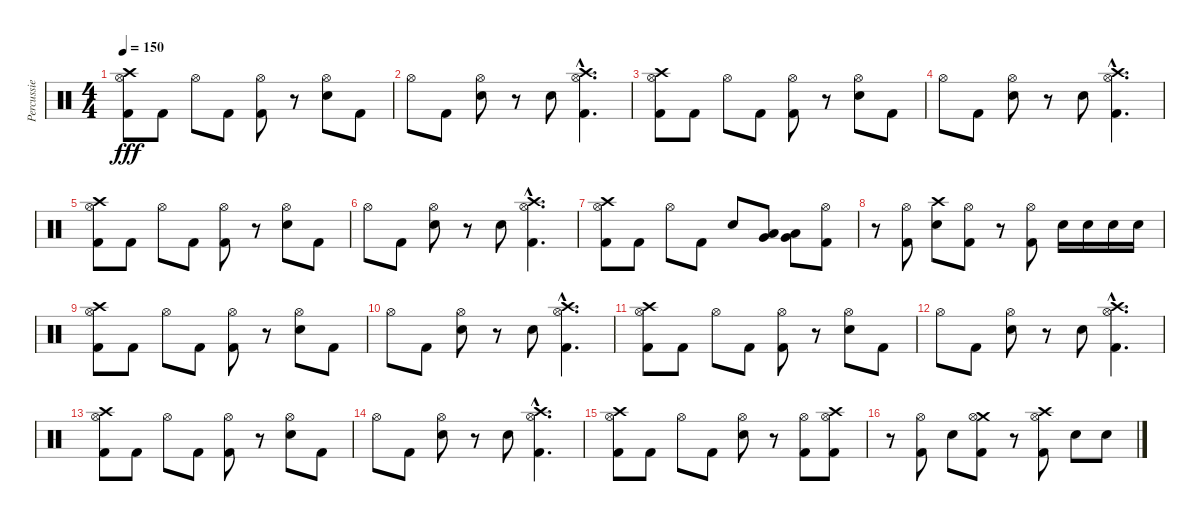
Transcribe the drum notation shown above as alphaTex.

\track ("Percussie" "Percussie") {instrument percussion}
\staff {score}
\articulation defaults
\ts (4 4)
\tempo 150
\clef neutral
\ks c
("Kick (hit) 2" "Crash high (hit)" "Hi-Hat (open)").8{dy fff} "Kick (hit) 2".8 "Hi-Hat (open)".8 "Kick (hit) 2".8 ("Kick (hit) 2" "Hi-Hat (open)").8 r.8 ("Electric Snare (hit)" "Hi-Hat (open)").8 "Kick (hit) 2".8 |
"Hi-Hat (open)".8 "Kick (hit) 2".8 ("Electric Snare (hit)" "Hi-Hat (open)").8 r.8 "Electric Snare (hit)".8 ("Kick (hit) 2"{hac} "Crash high (hit)"{hac} "Hi-Hat (open)"{hac}).4{d} |
("Kick (hit) 2" "Crash high (hit)" "Hi-Hat (open)").8 "Kick (hit) 2".8 "Hi-Hat (open)".8 "Kick (hit) 2".8 ("Kick (hit) 2" "Hi-Hat (open)").8 r.8 ("Electric Snare (hit)" "Hi-Hat (open)").8 "Kick (hit) 2".8 |
"Hi-Hat (open)".8 "Kick (hit) 2".8 ("Electric Snare (hit)" "Hi-Hat (open)").8 r.8 "Electric Snare (hit)".8 ("Kick (hit) 2"{hac} "Crash high (hit)"{hac} "Hi-Hat (open)"{hac}).4{d} |
("Kick (hit) 2" "Crash high (hit)" "Hi-Hat (open)").8 "Kick (hit) 2".8 "Hi-Hat (open)".8 "Kick (hit) 2".8 ("Kick (hit) 2" "Hi-Hat (open)").8 r.8 ("Electric Snare (hit)" "Hi-Hat (open)").8 "Kick (hit) 2".8 |
"Hi-Hat (open)".8 "Kick (hit) 2".8 ("Electric Snare (hit)" "Hi-Hat (open)").8 r.8 "Electric Snare (hit)".8 ("Kick (hit) 2"{hac} "Crash high (hit)"{hac} "Hi-Hat (open)"{hac}).4{d} |
("Kick (hit) 2" "Crash high (hit)" "Hi-Hat (open)").8 "Kick (hit) 2".8 "Hi-Hat (open)".8 "Kick (hit) 2".8 "Electric Snare (hit)".8 ("Low Tom (hit)" "Very Low Tom (hit)").8 ("Low Tom (hit)" "Very Low Tom (hit)").8 ("Kick (hit) 2" "Hi-Hat (open)").8 |
r.8 ("Kick (hit) 2" "Hi-Hat (open)").8 ("Electric Snare (hit)" "Crash high (hit)").8 ("Kick (hit) 2" "Hi-Hat (open)").8 r.8 ("Kick (hit) 2" "Hi-Hat (open)").8 "Electric Snare (hit)".16 "Electric Snare (hit)".16 "Electric Snare (hit)".16 "Electric Snare (hit)".16 |
("Kick (hit) 2" "Crash high (hit)" "Hi-Hat (open)").8 "Kick (hit) 2".8 "Hi-Hat (open)".8 "Kick (hit) 2".8 ("Kick (hit) 2" "Hi-Hat (open)").8 r.8 ("Electric Snare (hit)" "Hi-Hat (open)").8 "Kick (hit) 2".8 |
"Hi-Hat (open)".8 "Kick (hit) 2".8 ("Electric Snare (hit)" "Hi-Hat (open)").8 r.8 "Electric Snare (hit)".8 ("Kick (hit) 2"{hac} "Crash high (hit)"{hac} "Hi-Hat (open)"{hac}).4{d} |
("Kick (hit) 2" "Crash high (hit)" "Hi-Hat (open)").8 "Kick (hit) 2".8 "Hi-Hat (open)".8 "Kick (hit) 2".8 ("Kick (hit) 2" "Hi-Hat (open)").8 r.8 ("Electric Snare (hit)" "Hi-Hat (open)").8 "Kick (hit) 2".8 |
"Hi-Hat (open)".8 "Kick (hit) 2".8 ("Electric Snare (hit)" "Hi-Hat (open)").8 r.8 "Electric Snare (hit)".8 ("Kick (hit) 2"{hac} "Crash high (hit)"{hac} "Hi-Hat (open)"{hac}).4{d} |
("Kick (hit) 2" "Crash high (hit)" "Hi-Hat (open)").8 "Kick (hit) 2".8 "Hi-Hat (open)".8 "Kick (hit) 2".8 ("Kick (hit) 2" "Hi-Hat (open)").8 r.8 ("Electric Snare (hit)" "Hi-Hat (open)").8 "Kick (hit) 2".8 |
"Hi-Hat (open)".8 "Kick (hit) 2".8 ("Electric Snare (hit)" "Hi-Hat (open)").8 r.8 "Electric Snare (hit)".8 ("Kick (hit) 2"{hac} "Crash high (hit)"{hac} "Hi-Hat (open)"{hac}).4{d} |
("Kick (hit) 2" "Crash high (hit)" "Hi-Hat (open)").8 "Kick (hit) 2".8 "Hi-Hat (open)".8 "Kick (hit) 2".8 ("Electric Snare (hit)" "Hi-Hat (open)").8 r.8 ("Kick (hit) 2" "Hi-Hat (open)").8 ("Kick (hit) 2" "Crash high (hit)" "Hi-Hat (open)").8 |
r.8 ("Kick (hit) 2" "Hi-Hat (open)").8 "Electric Snare (hit)".8 ("Kick (hit) 2" "Crash medium (hit)" "Hi-Hat (open)").8 r.8 ("Kick (hit) 2" "Crash high (hit)" "Hi-Hat (open)").8 "Electric Snare (hit)".8 "Electric Snare (hit)".8
